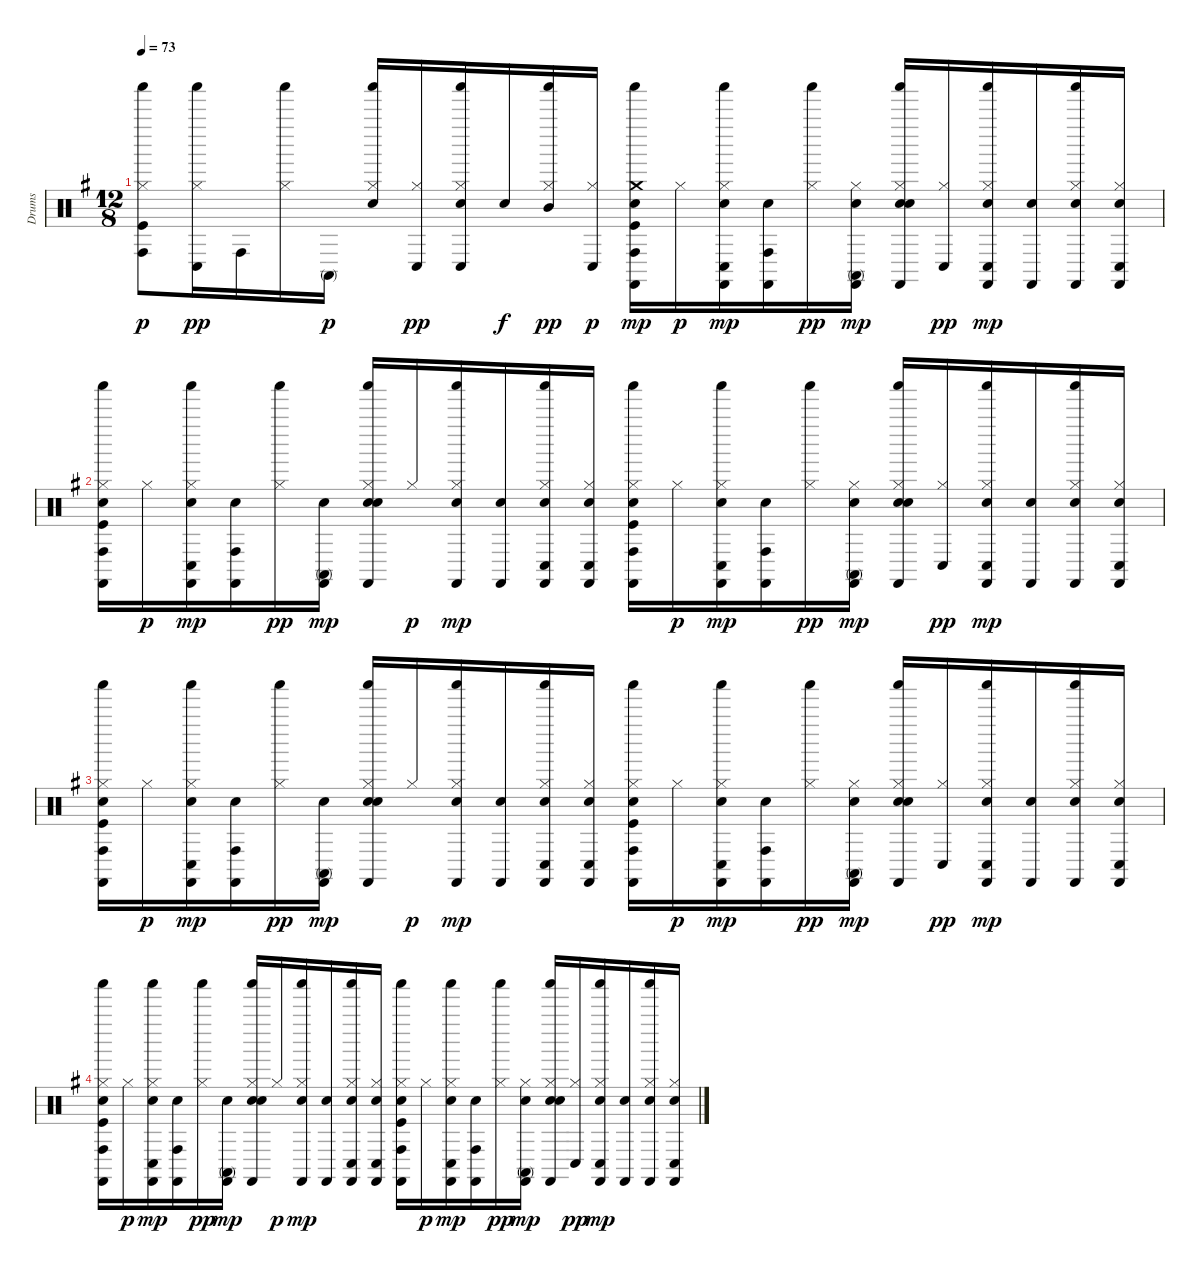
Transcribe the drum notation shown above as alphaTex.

\track ("Drums" "Drums") {instrument percussion}
\staff {score}
\articulation defaults
\ts (12 8)
\tempo 73
\clef neutral
\ks g
("Kick (hit)" "Hi-Hat (closed)" "Conga high (hit)" "Shaker (hit)").8{dy p} ("Hi-Hat (closed)" "Conga low (hit)" "Shaker (hit)").16{dy pp} "Conga high (hit)".16 ("Hi-Hat (closed)" "Shaker (hit)").16 "Conga high (mute)".16{dy p} ("Electric Snare (hit)" "Hi-Hat (closed)" "Shaker (hit)").16 ("Hi-Hat (closed)" "Conga low (hit)").16{dy pp} ("Electric Snare (hit)" "Hi-Hat (closed)" "Conga low (hit)" "Shaker (hit)").16 "Electric Snare (hit)".16{dy f} ("Hi-Hat (closed)" "Mid Tom (hit)" "Shaker (hit)").16{dy pp} ("Hi-Hat (closed)" "Conga low (hit)").16{dy p} ("Kick (hit)" "Hand Clap (hit)" "Crash medium (hit)" "Conga high (hit)" "Shaker (hit)" "Castanets (hit)").16{dy mp} "Hi-Hat (closed)".16{dy p} ("Hand Clap (hit)" "Hi-Hat (closed)" "Conga low (hit)" "Shaker (hit)" "Castanets (hit)").16{dy mp} ("Hand Clap (hit)" "Conga high (hit)" "Castanets (hit)").16 ("Hi-Hat (closed)" "Shaker (hit)").16{dy pp} ("Hand Clap (hit)" "Hi-Hat (closed)" "Conga high (mute)" "Castanets (hit)").16{dy mp} ("Hand Clap (hit)" "Electric Snare (hit)" "Hi-Hat (closed)" "Shaker (hit)" "Castanets (hit)").16 ("Hi-Hat (closed)" "Conga low (hit)").16{dy pp} ("Hand Clap (hit)" "Hi-Hat (closed)" "Conga low (hit)" "Shaker (hit)" "Castanets (hit)").16{dy mp} ("Hand Clap (hit)" "Castanets (hit)").16 ("Hand Clap (hit)" "Hi-Hat (closed)" "Shaker (hit)" "Castanets (hit)").16 ("Hand Clap (hit)" "Hi-Hat (closed)" "Conga low (hit)" "Castanets (hit)").16 |
("Kick (hit)" "Hand Clap (hit)" "Hi-Hat (closed)" "Conga high (hit)" "Shaker (hit)" "Castanets (hit)").16 "Hi-Hat (closed)".16{dy p} ("Hand Clap (hit)" "Hi-Hat (closed)" "Conga low (hit)" "Shaker (hit)" "Castanets (hit)").16{dy mp} ("Hand Clap (hit)" "Conga high (hit)" "Castanets (hit)").16 ("Hi-Hat (closed)" "Shaker (hit)").16{dy pp} ("Hand Clap (hit)" "Conga high (mute)" "Castanets (hit)").16{dy mp} ("Hand Clap (hit)" "Electric Snare (hit)" "Hi-Hat (closed)" "Shaker (hit)" "Castanets (hit)").16 "Hi-Hat (closed)".16{dy p} ("Hand Clap (hit)" "Hi-Hat (closed)" "Shaker (hit)" "Castanets (hit)").16{dy mp} ("Hand Clap (hit)" "Castanets (hit)").16 ("Hand Clap (hit)" "Hi-Hat (closed)" "Conga low (hit)" "Shaker (hit)" "Castanets (hit)").16 ("Hand Clap (hit)" "Hi-Hat (closed)" "Conga low (hit)" "Castanets (hit)").16 ("Kick (hit)" "Hand Clap (hit)" "Hi-Hat (closed)" "Conga high (hit)" "Shaker (hit)" "Castanets (hit)").16 "Hi-Hat (closed)".16{dy p} ("Hand Clap (hit)" "Hi-Hat (closed)" "Conga low (hit)" "Shaker (hit)" "Castanets (hit)").16{dy mp} ("Hand Clap (hit)" "Conga high (hit)" "Castanets (hit)").16 ("Hi-Hat (closed)" "Shaker (hit)").16{dy pp} ("Hand Clap (hit)" "Hi-Hat (closed)" "Conga high (mute)" "Castanets (hit)").16{dy mp} ("Hand Clap (hit)" "Electric Snare (hit)" "Hi-Hat (closed)" "Shaker (hit)" "Castanets (hit)").16 ("Hi-Hat (closed)" "Conga low (hit)").16{dy pp} ("Hand Clap (hit)" "Hi-Hat (closed)" "Conga low (hit)" "Shaker (hit)" "Castanets (hit)").16{dy mp} ("Hand Clap (hit)" "Castanets (hit)").16 ("Hand Clap (hit)" "Hi-Hat (closed)" "Shaker (hit)" "Castanets (hit)").16 ("Hand Clap (hit)" "Hi-Hat (closed)" "Conga low (hit)" "Castanets (hit)").16 |
("Kick (hit)" "Hand Clap (hit)" "Hi-Hat (closed)" "Conga high (hit)" "Shaker (hit)" "Castanets (hit)").16 "Hi-Hat (closed)".16{dy p} ("Hand Clap (hit)" "Hi-Hat (closed)" "Conga low (hit)" "Shaker (hit)" "Castanets (hit)").16{dy mp} ("Hand Clap (hit)" "Conga high (hit)" "Castanets (hit)").16 ("Hi-Hat (closed)" "Shaker (hit)").16{dy pp} ("Hand Clap (hit)" "Conga high (mute)" "Castanets (hit)").16{dy mp} ("Hand Clap (hit)" "Electric Snare (hit)" "Hi-Hat (closed)" "Shaker (hit)" "Castanets (hit)").16 "Hi-Hat (closed)".16{dy p} ("Hand Clap (hit)" "Hi-Hat (closed)" "Shaker (hit)" "Castanets (hit)").16{dy mp} ("Hand Clap (hit)" "Castanets (hit)").16 ("Hand Clap (hit)" "Hi-Hat (closed)" "Conga low (hit)" "Shaker (hit)" "Castanets (hit)").16 ("Hand Clap (hit)" "Hi-Hat (closed)" "Conga low (hit)" "Castanets (hit)").16 ("Kick (hit)" "Hand Clap (hit)" "Hi-Hat (closed)" "Conga high (hit)" "Shaker (hit)" "Castanets (hit)").16 "Hi-Hat (closed)".16{dy p} ("Hand Clap (hit)" "Hi-Hat (closed)" "Conga low (hit)" "Shaker (hit)" "Castanets (hit)").16{dy mp} ("Hand Clap (hit)" "Conga high (hit)" "Castanets (hit)").16 ("Hi-Hat (closed)" "Shaker (hit)").16{dy pp} ("Hand Clap (hit)" "Hi-Hat (closed)" "Conga high (mute)" "Castanets (hit)").16{dy mp} ("Hand Clap (hit)" "Electric Snare (hit)" "Hi-Hat (closed)" "Shaker (hit)" "Castanets (hit)").16 ("Hi-Hat (closed)" "Conga low (hit)").16{dy pp} ("Hand Clap (hit)" "Hi-Hat (closed)" "Conga low (hit)" "Shaker (hit)" "Castanets (hit)").16{dy mp} ("Hand Clap (hit)" "Castanets (hit)").16 ("Hand Clap (hit)" "Hi-Hat (closed)" "Shaker (hit)" "Castanets (hit)").16 ("Hand Clap (hit)" "Hi-Hat (closed)" "Conga low (hit)" "Castanets (hit)").16 |
("Kick (hit)" "Hand Clap (hit)" "Hi-Hat (closed)" "Conga high (hit)" "Shaker (hit)" "Castanets (hit)").16 "Hi-Hat (closed)".16{dy p} ("Hand Clap (hit)" "Hi-Hat (closed)" "Conga low (hit)" "Shaker (hit)" "Castanets (hit)").16{dy mp} ("Hand Clap (hit)" "Conga high (hit)" "Castanets (hit)").16 ("Hi-Hat (closed)" "Shaker (hit)").16{dy pp} ("Hand Clap (hit)" "Conga high (mute)" "Castanets (hit)").16{dy mp} ("Hand Clap (hit)" "Electric Snare (hit)" "Hi-Hat (closed)" "Shaker (hit)" "Castanets (hit)").16 "Hi-Hat (closed)".16{dy p} ("Hand Clap (hit)" "Hi-Hat (closed)" "Shaker (hit)" "Castanets (hit)").16{dy mp} ("Hand Clap (hit)" "Castanets (hit)").16 ("Hand Clap (hit)" "Hi-Hat (closed)" "Conga low (hit)" "Shaker (hit)" "Castanets (hit)").16 ("Hand Clap (hit)" "Hi-Hat (closed)" "Conga low (hit)" "Castanets (hit)").16 ("Kick (hit)" "Hand Clap (hit)" "Hi-Hat (closed)" "Conga high (hit)" "Shaker (hit)" "Castanets (hit)").16 "Hi-Hat (closed)".16{dy p} ("Hand Clap (hit)" "Hi-Hat (closed)" "Conga low (hit)" "Shaker (hit)" "Castanets (hit)").16{dy mp} ("Hand Clap (hit)" "Conga high (hit)" "Castanets (hit)").16 ("Hi-Hat (closed)" "Shaker (hit)").16{dy pp} ("Hand Clap (hit)" "Hi-Hat (closed)" "Conga high (mute)" "Castanets (hit)").16{dy mp} ("Hand Clap (hit)" "Electric Snare (hit)" "Hi-Hat (closed)" "Shaker (hit)" "Castanets (hit)").16 ("Hi-Hat (closed)" "Conga low (hit)").16{dy pp} ("Hand Clap (hit)" "Hi-Hat (closed)" "Conga low (hit)" "Shaker (hit)" "Castanets (hit)").16{dy mp} ("Hand Clap (hit)" "Castanets (hit)").16 ("Hand Clap (hit)" "Hi-Hat (closed)" "Shaker (hit)" "Castanets (hit)").16 ("Hand Clap (hit)" "Hi-Hat (closed)" "Conga low (hit)" "Castanets (hit)").16
